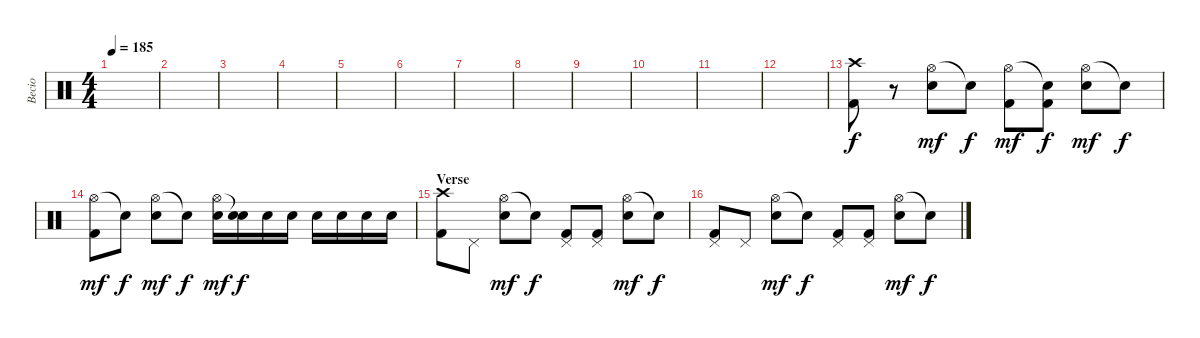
\track ("Becio" "Becio") {instrument percussion}
\staff {score}
\articulation defaults
\ts (4 4)
\tempo 185
\clef neutral
\ks c
|
|
|
|
|
|
|
|
|
|
|
|
("Crash high (hit)" "Kick (hit) 2").8 r.8 ("Hi-Hat (open)" "Electric Snare (hit)").8{dy mf} "Snare (hit)"{t}.8{dy f} ("Hi-Hat (open)" "Kick (hit) 2").8{dy mf} ("Snare (hit)"{t} "Kick (hit) 2").8{dy f} ("Hi-Hat (open)" "Electric Snare (hit)").8{dy mf} "Snare (hit)"{t}.8{dy f} |
("Hi-Hat (open)" "Kick (hit) 2").8{dy mf} "Snare (hit)"{t}.8{dy f} ("Hi-Hat (open)" "Electric Snare (hit)").8{dy mf} "Snare (hit)"{t}.8{dy f} ("Hi-Hat (open)" "Electric Snare (hit)").16{dy mf} ("Snare (hit)"{t} "Electric Snare (hit)").16{dy f} "Electric Snare (hit)".16 "Electric Snare (hit)".16 "Electric Snare (hit)".16 "Electric Snare (hit)".16 "Electric Snare (hit)".16 "Electric Snare (hit)".16 |
\section ("" "Verse")
("Crash high (hit)" "Kick (hit) 2").8 "Pedal Hi-Hat (hit)".8 ("Hi-Hat (open)" "Electric Snare (hit)").8{dy mf} "Snare (hit)"{t}.8{dy f} ("Pedal Hi-Hat (hit)" "Kick (hit) 2").8 ("Pedal Hi-Hat (hit)" "Kick (hit) 2").8 ("Hi-Hat (open)" "Electric Snare (hit)").8{dy mf} "Snare (hit)"{t}.8{dy f} |
("Pedal Hi-Hat (hit)" "Kick (hit) 2").8 "Pedal Hi-Hat (hit)".8 ("Hi-Hat (open)" "Electric Snare (hit)").8{dy mf} "Snare (hit)"{t}.8{dy f} ("Pedal Hi-Hat (hit)" "Kick (hit) 2").8 ("Pedal Hi-Hat (hit)" "Kick (hit) 2").8 ("Hi-Hat (open)" "Electric Snare (hit)").8{dy mf} "Snare (hit)"{t}.8{dy f}
